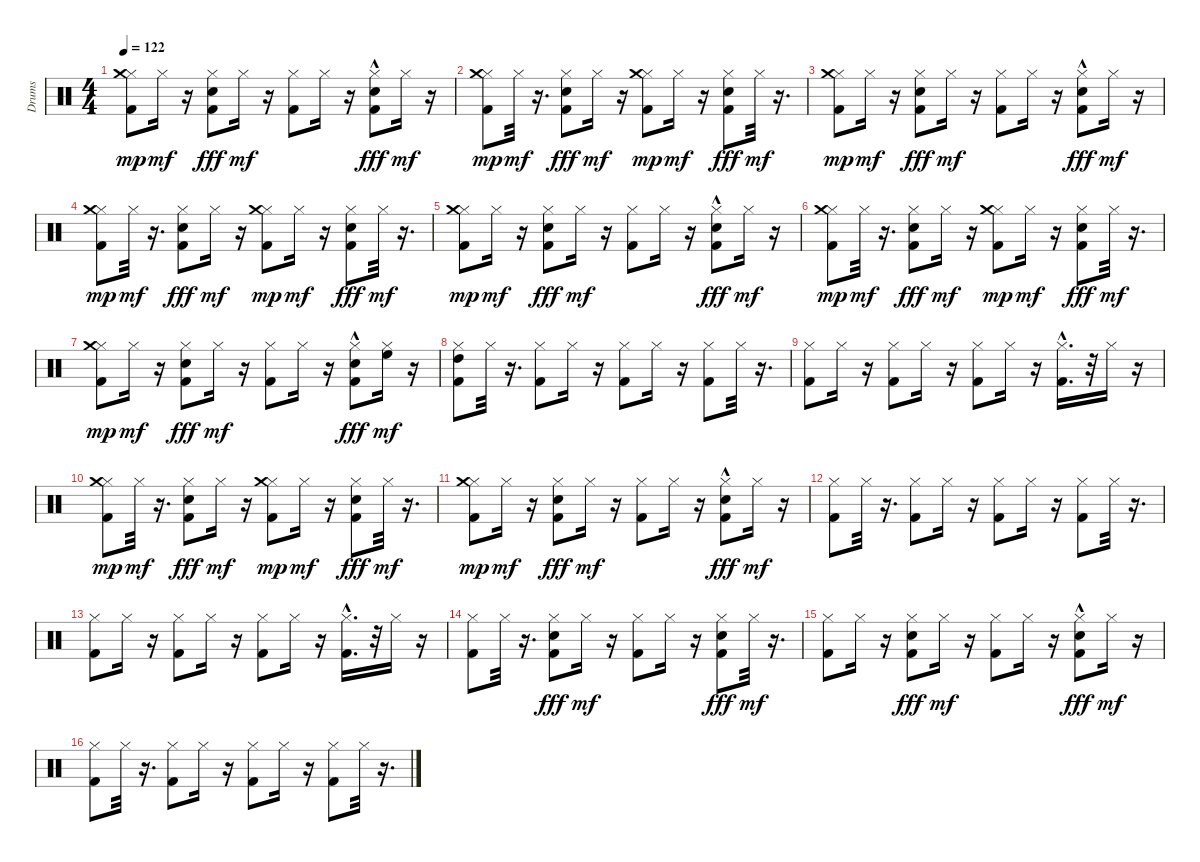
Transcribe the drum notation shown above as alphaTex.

\track ("Drums" "Drums") {instrument percussion}
\staff {score}
\articulation defaults
\ts (4 4)
\tempo 122
\clef neutral
\ks c
("Hi-Hat (closed)" "Crash medium (hit)" "Kick (hit) 2").8{dy mp} "Hi-Hat (closed)".16{dy mf} r.16 ("Hi-Hat (closed)" "Electric Snare (hit)" "Kick (hit) 2").8{dy fff} "Hi-Hat (closed)".16{dy mf} r.16 ("Hi-Hat (closed)" "Kick (hit) 2").8 "Hi-Hat (closed)".16 r.16 ("Hi-Hat (closed)" "Electric Snare (hit)"{hac} "Kick (hit) 2"{hac}).8{dy fff} "Hi-Hat (closed)".16{dy mf} r.16 |
("Hi-Hat (closed)" "Crash medium (hit)" "Kick (hit) 2").8{dy mp} "Hi-Hat (closed)".32{dy mf} r.16{d} ("Hi-Hat (closed)" "Electric Snare (hit)" "Kick (hit) 2").8{dy fff} "Hi-Hat (closed)".16{dy mf} r.16 ("Hi-Hat (closed)" "Crash medium (hit)" "Kick (hit) 2").8{dy mp} "Hi-Hat (closed)".16{dy mf} r.16 ("Hi-Hat (closed)" "Electric Snare (hit)" "Kick (hit) 2").8{dy fff} "Hi-Hat (closed)".32{dy mf} r.16{d} |
("Hi-Hat (closed)" "Crash medium (hit)" "Kick (hit) 2").8{dy mp} "Hi-Hat (closed)".16{dy mf} r.16 ("Hi-Hat (closed)" "Electric Snare (hit)" "Kick (hit) 2").8{dy fff} "Hi-Hat (closed)".16{dy mf} r.16 ("Hi-Hat (closed)" "Kick (hit) 2").8 "Hi-Hat (closed)".16 r.16 ("Hi-Hat (closed)" "Electric Snare (hit)" "Kick (hit) 2"{hac}).8{dy fff} "Hi-Hat (closed)".16{dy mf} r.16 |
("Hi-Hat (closed)" "Crash medium (hit)" "Kick (hit) 2").8{dy mp} "Hi-Hat (closed)".32{dy mf} r.16{d} ("Hi-Hat (closed)" "Electric Snare (hit)" "Kick (hit) 2").8{dy fff} "Hi-Hat (closed)".16{dy mf} r.16 ("Hi-Hat (closed)" "Crash medium (hit)" "Kick (hit) 2").8{dy mp} "Hi-Hat (closed)".16{dy mf} r.16 ("Hi-Hat (closed)" "Electric Snare (hit)" "Kick (hit) 2").8{dy fff} "Hi-Hat (closed)".32{dy mf} r.16{d} |
("Hi-Hat (closed)" "Crash medium (hit)" "Kick (hit) 2").8{dy mp} "Hi-Hat (closed)".16{dy mf} r.16 ("Hi-Hat (closed)" "Electric Snare (hit)" "Kick (hit) 2").8{dy fff} "Hi-Hat (closed)".16{dy mf} r.16 ("Hi-Hat (closed)" "Kick (hit) 2").8 "Hi-Hat (closed)".16 r.16 ("Hi-Hat (closed)" "Electric Snare (hit)" "Kick (hit) 2"{hac}).8{dy fff} "Hi-Hat (closed)".16{dy mf} r.16 |
("Hi-Hat (closed)" "Crash medium (hit)" "Kick (hit) 2").8{dy mp} "Hi-Hat (closed)".32{dy mf} r.16{d} ("Hi-Hat (closed)" "Electric Snare (hit)" "Kick (hit) 2").8{dy fff} "Hi-Hat (closed)".16{dy mf} r.16 ("Hi-Hat (closed)" "Crash medium (hit)" "Kick (hit) 2").8{dy mp} "Hi-Hat (closed)".16{dy mf} r.16 ("Hi-Hat (closed)" "Electric Snare (hit)" "Kick (hit) 2").8{dy fff} "Hi-Hat (closed)".32{dy mf} r.16{d} |
("Hi-Hat (closed)" "Crash medium (hit)" "Kick (hit) 2").8{dy mp} "Hi-Hat (closed)".16{dy mf} r.16 ("Hi-Hat (closed)" "Electric Snare (hit)" "Kick (hit) 2").8{dy fff} "Hi-Hat (closed)".16{dy mf} r.16 ("Hi-Hat (closed)" "Kick (hit) 2").8 "Hi-Hat (closed)".16 r.16 ("Hi-Hat (closed)" "Electric Snare (hit)" "Kick (hit) 2"{hac}).8{dy fff} ("High Floor Tom (hit)" "Hi-Hat (closed)").16{dy mf} r.16 |
("High Tom (hit)" "Hi-Hat (closed)" "Kick (hit) 2").8 "Hi-Hat (closed)".32 r.16{d} ("Hi-Hat (closed)" "Kick (hit) 2").8 "Hi-Hat (closed)".16 r.16 ("Hi-Hat (closed)" "Kick (hit) 2").8 "Hi-Hat (closed)".16 r.16 ("Hi-Hat (closed)" "Kick (hit) 2").8 "Hi-Hat (closed)".32 r.16{d} |
("Hi-Hat (closed)" "Kick (hit) 2").8 "Hi-Hat (closed)".16 r.16 ("Hi-Hat (closed)" "Kick (hit) 2").8 "Hi-Hat (closed)".16 r.16 ("Hi-Hat (closed)" "Kick (hit) 2").8 "Hi-Hat (closed)".16 r.16 ("Hi-Hat (closed)" "Kick (hit) 2"{hac}).16{d} r.32 "Hi-Hat (closed)".16 r.16 |
("Hi-Hat (closed)" "Crash medium (hit)" "Kick (hit) 2").8{dy mp} "Hi-Hat (closed)".32{dy mf} r.16{d} ("Hi-Hat (closed)" "Electric Snare (hit)" "Kick (hit) 2").8{dy fff} "Hi-Hat (closed)".16{dy mf} r.16 ("Hi-Hat (closed)" "Crash medium (hit)" "Kick (hit) 2").8{dy mp} "Hi-Hat (closed)".16{dy mf} r.16 ("Hi-Hat (closed)" "Electric Snare (hit)" "Kick (hit) 2").8{dy fff} "Hi-Hat (closed)".32{dy mf} r.16{d} |
("Hi-Hat (closed)" "Crash medium (hit)" "Kick (hit) 2").8{dy mp} "Hi-Hat (closed)".16{dy mf} r.16 ("Hi-Hat (closed)" "Electric Snare (hit)" "Kick (hit) 2").8{dy fff} "Hi-Hat (closed)".16{dy mf} r.16 ("Hi-Hat (closed)" "Kick (hit) 2").8 "Hi-Hat (closed)".16 r.16 ("Hi-Hat (closed)" "Electric Snare (hit)" "Kick (hit) 2"{hac}).8{dy fff} "Hi-Hat (closed)".16{dy mf} r.16 |
("Hi-Hat (closed)" "Kick (hit) 2").8 "Hi-Hat (closed)".32 r.16{d} ("Hi-Hat (closed)" "Kick (hit) 2").8 "Hi-Hat (closed)".16 r.16 ("Hi-Hat (closed)" "Kick (hit) 2").8 "Hi-Hat (closed)".16 r.16 ("Hi-Hat (closed)" "Kick (hit) 2").8 "Hi-Hat (closed)".32 r.16{d} |
("Hi-Hat (closed)" "Kick (hit) 2").8 "Hi-Hat (closed)".16 r.16 ("Hi-Hat (closed)" "Kick (hit) 2").8 "Hi-Hat (closed)".16 r.16 ("Hi-Hat (closed)" "Kick (hit) 2").8 "Hi-Hat (closed)".16 r.16 ("Hi-Hat (closed)" "Kick (hit) 2"{hac}).16{d} r.32 "Hi-Hat (closed)".16 r.16 |
("Hi-Hat (closed)" "Kick (hit) 2").8 "Hi-Hat (closed)".32 r.16{d} ("Hi-Hat (closed)" "Electric Snare (hit)" "Kick (hit) 2").8{dy fff} "Hi-Hat (closed)".16{dy mf} r.16 ("Hi-Hat (closed)" "Kick (hit) 2").8 "Hi-Hat (closed)".16 r.16 ("Hi-Hat (closed)" "Electric Snare (hit)" "Kick (hit) 2").8{dy fff} "Hi-Hat (closed)".32{dy mf} r.16{d} |
("Hi-Hat (closed)" "Kick (hit) 2").8 "Hi-Hat (closed)".16 r.16 ("Hi-Hat (closed)" "Electric Snare (hit)" "Kick (hit) 2").8{dy fff} "Hi-Hat (closed)".16{dy mf} r.16 ("Hi-Hat (closed)" "Kick (hit) 2").8 "Hi-Hat (closed)".16 r.16 ("Hi-Hat (closed)" "Electric Snare (hit)" "Kick (hit) 2"{hac}).8{dy fff} "Hi-Hat (closed)".16{dy mf} r.16 |
("Hi-Hat (closed)" "Kick (hit) 2").8 "Hi-Hat (closed)".32 r.16{d} ("Hi-Hat (closed)" "Kick (hit) 2").8 "Hi-Hat (closed)".16 r.16 ("Hi-Hat (closed)" "Kick (hit) 2").8 "Hi-Hat (closed)".16 r.16 ("Hi-Hat (closed)" "Kick (hit) 2").8 "Hi-Hat (closed)".32 r.16{d}
